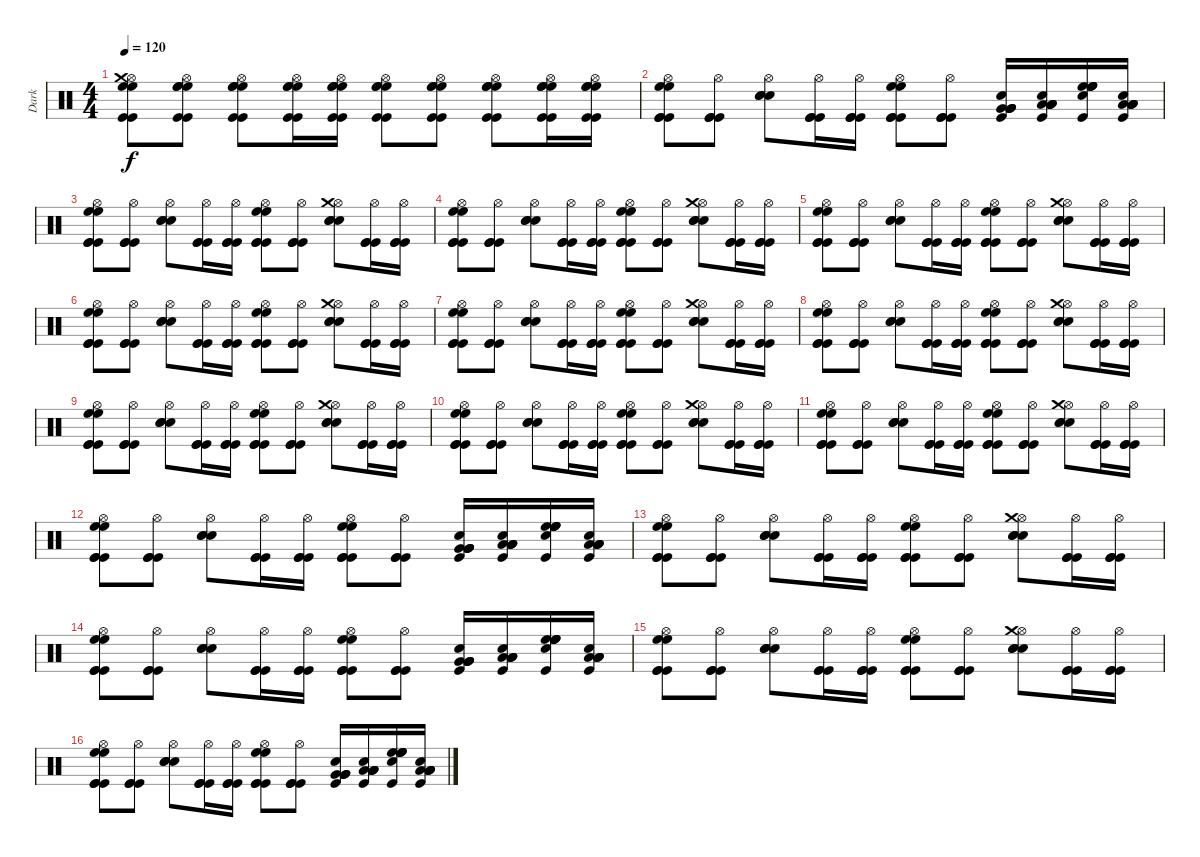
\track ("Dark" "Dark") {instrument percussion}
\staff {score}
\articulation defaults
\ts (4 4)
\tempo 120
\clef neutral
\ks c
("Hi-Hat (open)" "High Floor Tom (hit)" "High Floor Tom (hit)" "Crash medium (hit)" "Kick (hit)" "Kick (hit)").8{dy f} ("Hi-Hat (open)" "High Floor Tom (hit)" "High Floor Tom (hit)" "High Floor Tom (hit)" "Kick (hit)" "Kick (hit)").8 ("Hi-Hat (open)" "High Floor Tom (hit)" "High Floor Tom (hit)" "High Floor Tom (hit)" "Kick (hit)" "Kick (hit)").8 ("Hi-Hat (open)" "High Floor Tom (hit)" "High Floor Tom (hit)" "High Floor Tom (hit)" "Kick (hit)" "Kick (hit)").16 ("Hi-Hat (open)" "High Floor Tom (hit)" "High Floor Tom (hit)" "High Floor Tom (hit)" "Kick (hit)" "Kick (hit)").16 ("Hi-Hat (open)" "High Floor Tom (hit)" "High Floor Tom (hit)" "High Floor Tom (hit)" "Kick (hit)" "Kick (hit)").8 ("Hi-Hat (open)" "High Floor Tom (hit)" "High Floor Tom (hit)" "High Floor Tom (hit)" "Kick (hit)" "Kick (hit)").8 ("Hi-Hat (open)" "High Floor Tom (hit)" "High Floor Tom (hit)" "High Floor Tom (hit)" "Kick (hit)" "Kick (hit)").8 ("Hi-Hat (open)" "High Floor Tom (hit)" "High Floor Tom (hit)" "High Floor Tom (hit)" "Kick (hit)" "Kick (hit)").16 ("Hi-Hat (open)" "High Floor Tom (hit)" "High Floor Tom (hit)" "High Floor Tom (hit)" "Kick (hit)" "Kick (hit)").16 |
("Hi-Hat (open)" "High Floor Tom (hit)" "High Floor Tom (hit)" "Kick (hit)" "Kick (hit)" "Kick (hit)").8 ("Hi-Hat (open)" "Kick (hit)" "Kick (hit)" "Kick (hit)").8 ("Hi-Hat (open)" "Snare (hit) 2" "Snare (hit) 2" "Snare (hit) 2").8 ("Hi-Hat (open)" "Kick (hit)" "Kick (hit)" "Kick (hit)").16 ("Hi-Hat (open)" "Kick (hit)" "Kick (hit)" "Kick (hit)").16 ("Hi-Hat (open)" "High Floor Tom (hit)" "High Floor Tom (hit)" "Kick (hit)" "Kick (hit)" "Kick (hit)").8 ("Hi-Hat (open)" "Kick (hit)" "Kick (hit)" "Kick (hit)").8 ("Very Low Tom (hit)" "Very Low Tom (hit)" "Very Low Tom (hit)" "Very Low Tom (hit)" "Snare (hit) 2" "Kick (hit)").16 ("Low Tom (hit)" "Low Tom (hit)" "Low Tom (hit)" "Low Tom (hit)" "Snare (hit) 2" "Kick (hit)").16 ("High Floor Tom (hit)" "High Floor Tom (hit)" "High Floor Tom (hit)" "High Floor Tom (hit)" "Snare (hit) 2" "Kick (hit)").16 ("Low Tom (hit)" "Low Tom (hit)" "Low Tom (hit)" "Low Tom (hit)" "Snare (hit) 2" "Kick (hit)").16 |
("Hi-Hat (open)" "High Floor Tom (hit)" "High Floor Tom (hit)" "Kick (hit)" "Kick (hit)" "Kick (hit)").8 ("Hi-Hat (open)" "Kick (hit)" "Kick (hit)" "Kick (hit)").8 ("Hi-Hat (open)" "Snare (hit) 2" "Snare (hit) 2" "Snare (hit) 2").8 ("Hi-Hat (open)" "Kick (hit)" "Kick (hit)" "Kick (hit)").16 ("Hi-Hat (open)" "Kick (hit)" "Kick (hit)" "Kick (hit)").16 ("Hi-Hat (open)" "High Floor Tom (hit)" "High Floor Tom (hit)" "Kick (hit)" "Kick (hit)" "Kick (hit)").8 ("Hi-Hat (open)" "Kick (hit)" "Kick (hit)" "Kick (hit)").8 ("Hi-Hat (open)" "Crash medium (hit)" "Snare (hit) 2" "Snare (hit) 2" "Snare (hit) 2").8 ("Hi-Hat (open)" "Kick (hit)" "Kick (hit)" "Kick (hit)").16 ("Hi-Hat (open)" "Kick (hit)" "Kick (hit)" "Kick (hit)").16 |
("Hi-Hat (open)" "High Floor Tom (hit)" "High Floor Tom (hit)" "Kick (hit)" "Kick (hit)" "Kick (hit)").8 ("Hi-Hat (open)" "Kick (hit)" "Kick (hit)" "Kick (hit)").8 ("Hi-Hat (open)" "Snare (hit) 2" "Snare (hit) 2" "Snare (hit) 2").8 ("Hi-Hat (open)" "Kick (hit)" "Kick (hit)" "Kick (hit)").16 ("Hi-Hat (open)" "Kick (hit)" "Kick (hit)" "Kick (hit)").16 ("Hi-Hat (open)" "High Floor Tom (hit)" "High Floor Tom (hit)" "Kick (hit)" "Kick (hit)" "Kick (hit)").8 ("Hi-Hat (open)" "Kick (hit)" "Kick (hit)" "Kick (hit)").8 ("Hi-Hat (open)" "Crash medium (hit)" "Snare (hit) 2" "Snare (hit) 2" "Snare (hit) 2").8 ("Hi-Hat (open)" "Kick (hit)" "Kick (hit)" "Kick (hit)").16 ("Hi-Hat (open)" "Kick (hit)" "Kick (hit)" "Kick (hit)").16 |
("Hi-Hat (open)" "High Floor Tom (hit)" "High Floor Tom (hit)" "Kick (hit)" "Kick (hit)" "Kick (hit)").8 ("Hi-Hat (open)" "Kick (hit)" "Kick (hit)" "Kick (hit)").8 ("Hi-Hat (open)" "Snare (hit) 2" "Snare (hit) 2" "Snare (hit) 2").8 ("Hi-Hat (open)" "Kick (hit)" "Kick (hit)" "Kick (hit)").16 ("Hi-Hat (open)" "Kick (hit)" "Kick (hit)" "Kick (hit)").16 ("Hi-Hat (open)" "High Floor Tom (hit)" "High Floor Tom (hit)" "Kick (hit)" "Kick (hit)" "Kick (hit)").8 ("Hi-Hat (open)" "Kick (hit)" "Kick (hit)" "Kick (hit)").8 ("Hi-Hat (open)" "Crash medium (hit)" "Snare (hit) 2" "Snare (hit) 2" "Snare (hit) 2").8 ("Hi-Hat (open)" "Kick (hit)" "Kick (hit)" "Kick (hit)").16 ("Hi-Hat (open)" "Kick (hit)" "Kick (hit)" "Kick (hit)").16 |
("Hi-Hat (open)" "High Floor Tom (hit)" "High Floor Tom (hit)" "Kick (hit)" "Kick (hit)" "Kick (hit)").8 ("Hi-Hat (open)" "Kick (hit)" "Kick (hit)" "Kick (hit)").8 ("Hi-Hat (open)" "Snare (hit) 2" "Snare (hit) 2" "Snare (hit) 2").8 ("Hi-Hat (open)" "Kick (hit)" "Kick (hit)" "Kick (hit)").16 ("Hi-Hat (open)" "Kick (hit)" "Kick (hit)" "Kick (hit)").16 ("Hi-Hat (open)" "High Floor Tom (hit)" "High Floor Tom (hit)" "Kick (hit)" "Kick (hit)" "Kick (hit)").8 ("Hi-Hat (open)" "Kick (hit)" "Kick (hit)" "Kick (hit)").8 ("Hi-Hat (open)" "Crash medium (hit)" "Snare (hit) 2" "Snare (hit) 2" "Snare (hit) 2").8 ("Hi-Hat (open)" "Kick (hit)" "Kick (hit)" "Kick (hit)").16 ("Hi-Hat (open)" "Kick (hit)" "Kick (hit)" "Kick (hit)").16 |
("Hi-Hat (open)" "High Floor Tom (hit)" "High Floor Tom (hit)" "Kick (hit)" "Kick (hit)" "Kick (hit)").8 ("Hi-Hat (open)" "Kick (hit)" "Kick (hit)" "Kick (hit)").8 ("Hi-Hat (open)" "Snare (hit) 2" "Snare (hit) 2" "Snare (hit) 2").8 ("Hi-Hat (open)" "Kick (hit)" "Kick (hit)" "Kick (hit)").16 ("Hi-Hat (open)" "Kick (hit)" "Kick (hit)" "Kick (hit)").16 ("Hi-Hat (open)" "High Floor Tom (hit)" "High Floor Tom (hit)" "Kick (hit)" "Kick (hit)" "Kick (hit)").8 ("Hi-Hat (open)" "Kick (hit)" "Kick (hit)" "Kick (hit)").8 ("Hi-Hat (open)" "Crash medium (hit)" "Snare (hit) 2" "Snare (hit) 2" "Snare (hit) 2").8 ("Hi-Hat (open)" "Kick (hit)" "Kick (hit)" "Kick (hit)").16 ("Hi-Hat (open)" "Kick (hit)" "Kick (hit)" "Kick (hit)").16 |
("Hi-Hat (open)" "High Floor Tom (hit)" "High Floor Tom (hit)" "Kick (hit)" "Kick (hit)" "Kick (hit)").8 ("Hi-Hat (open)" "Kick (hit)" "Kick (hit)" "Kick (hit)").8 ("Hi-Hat (open)" "Snare (hit) 2" "Snare (hit) 2" "Snare (hit) 2").8 ("Hi-Hat (open)" "Kick (hit)" "Kick (hit)" "Kick (hit)").16 ("Hi-Hat (open)" "Kick (hit)" "Kick (hit)" "Kick (hit)").16 ("Hi-Hat (open)" "High Floor Tom (hit)" "High Floor Tom (hit)" "Kick (hit)" "Kick (hit)" "Kick (hit)").8 ("Hi-Hat (open)" "Kick (hit)" "Kick (hit)" "Kick (hit)").8 ("Hi-Hat (open)" "Crash medium (hit)" "Snare (hit) 2" "Snare (hit) 2" "Snare (hit) 2").8 ("Hi-Hat (open)" "Kick (hit)" "Kick (hit)" "Kick (hit)").16 ("Hi-Hat (open)" "Kick (hit)" "Kick (hit)" "Kick (hit)").16 |
("Hi-Hat (open)" "High Floor Tom (hit)" "High Floor Tom (hit)" "Kick (hit)" "Kick (hit)" "Kick (hit)").8 ("Hi-Hat (open)" "Kick (hit)" "Kick (hit)" "Kick (hit)").8 ("Hi-Hat (open)" "Snare (hit) 2" "Snare (hit) 2" "Snare (hit) 2").8 ("Hi-Hat (open)" "Kick (hit)" "Kick (hit)" "Kick (hit)").16 ("Hi-Hat (open)" "Kick (hit)" "Kick (hit)" "Kick (hit)").16 ("Hi-Hat (open)" "High Floor Tom (hit)" "High Floor Tom (hit)" "Kick (hit)" "Kick (hit)" "Kick (hit)").8 ("Hi-Hat (open)" "Kick (hit)" "Kick (hit)" "Kick (hit)").8 ("Hi-Hat (open)" "Crash medium (hit)" "Snare (hit) 2" "Snare (hit) 2" "Snare (hit) 2").8 ("Hi-Hat (open)" "Kick (hit)" "Kick (hit)" "Kick (hit)").16 ("Hi-Hat (open)" "Kick (hit)" "Kick (hit)" "Kick (hit)").16 |
("Hi-Hat (open)" "High Floor Tom (hit)" "High Floor Tom (hit)" "Kick (hit)" "Kick (hit)" "Kick (hit)").8 ("Hi-Hat (open)" "Kick (hit)" "Kick (hit)" "Kick (hit)").8 ("Hi-Hat (open)" "Snare (hit) 2" "Snare (hit) 2" "Snare (hit) 2").8 ("Hi-Hat (open)" "Kick (hit)" "Kick (hit)" "Kick (hit)").16 ("Hi-Hat (open)" "Kick (hit)" "Kick (hit)" "Kick (hit)").16 ("Hi-Hat (open)" "High Floor Tom (hit)" "High Floor Tom (hit)" "Kick (hit)" "Kick (hit)" "Kick (hit)").8 ("Hi-Hat (open)" "Kick (hit)" "Kick (hit)" "Kick (hit)").8 ("Hi-Hat (open)" "Crash medium (hit)" "Snare (hit) 2" "Snare (hit) 2" "Snare (hit) 2").8 ("Hi-Hat (open)" "Kick (hit)" "Kick (hit)" "Kick (hit)").16 ("Hi-Hat (open)" "Kick (hit)" "Kick (hit)" "Kick (hit)").16 |
("Hi-Hat (open)" "High Floor Tom (hit)" "High Floor Tom (hit)" "Kick (hit)" "Kick (hit)" "Kick (hit)").8 ("Hi-Hat (open)" "Kick (hit)" "Kick (hit)" "Kick (hit)").8 ("Hi-Hat (open)" "Snare (hit) 2" "Snare (hit) 2" "Snare (hit) 2").8 ("Hi-Hat (open)" "Kick (hit)" "Kick (hit)" "Kick (hit)").16 ("Hi-Hat (open)" "Kick (hit)" "Kick (hit)" "Kick (hit)").16 ("Hi-Hat (open)" "High Floor Tom (hit)" "High Floor Tom (hit)" "Kick (hit)" "Kick (hit)" "Kick (hit)").8 ("Hi-Hat (open)" "Kick (hit)" "Kick (hit)" "Kick (hit)").8 ("Hi-Hat (open)" "Crash medium (hit)" "Snare (hit) 2" "Snare (hit) 2" "Snare (hit) 2").8 ("Hi-Hat (open)" "Kick (hit)" "Kick (hit)" "Kick (hit)").16 ("Hi-Hat (open)" "Kick (hit)" "Kick (hit)" "Kick (hit)").16 |
("Hi-Hat (open)" "High Floor Tom (hit)" "High Floor Tom (hit)" "Kick (hit)" "Kick (hit)" "Kick (hit)").8 ("Hi-Hat (open)" "Kick (hit)" "Kick (hit)" "Kick (hit)").8 ("Hi-Hat (open)" "Snare (hit) 2" "Snare (hit) 2" "Snare (hit) 2").8 ("Hi-Hat (open)" "Kick (hit)" "Kick (hit)" "Kick (hit)").16 ("Hi-Hat (open)" "Kick (hit)" "Kick (hit)" "Kick (hit)").16 ("Hi-Hat (open)" "High Floor Tom (hit)" "High Floor Tom (hit)" "Kick (hit)" "Kick (hit)" "Kick (hit)").8 ("Hi-Hat (open)" "Kick (hit)" "Kick (hit)" "Kick (hit)").8 ("Very Low Tom (hit)" "Very Low Tom (hit)" "Very Low Tom (hit)" "Very Low Tom (hit)" "Snare (hit) 2" "Kick (hit)").16 ("Low Tom (hit)" "Low Tom (hit)" "Low Tom (hit)" "Low Tom (hit)" "Snare (hit) 2" "Kick (hit)").16 ("High Floor Tom (hit)" "High Floor Tom (hit)" "High Floor Tom (hit)" "High Floor Tom (hit)" "Snare (hit) 2" "Kick (hit)").16 ("Low Tom (hit)" "Low Tom (hit)" "Low Tom (hit)" "Low Tom (hit)" "Snare (hit) 2" "Kick (hit)").16 |
("Hi-Hat (open)" "High Floor Tom (hit)" "High Floor Tom (hit)" "Kick (hit)" "Kick (hit)" "Kick (hit)").8 ("Hi-Hat (open)" "Kick (hit)" "Kick (hit)" "Kick (hit)").8 ("Hi-Hat (open)" "Snare (hit) 2" "Snare (hit) 2" "Snare (hit) 2").8 ("Hi-Hat (open)" "Kick (hit)" "Kick (hit)" "Kick (hit)").16 ("Hi-Hat (open)" "Kick (hit)" "Kick (hit)" "Kick (hit)").16 ("Hi-Hat (open)" "High Floor Tom (hit)" "High Floor Tom (hit)" "Kick (hit)" "Kick (hit)" "Kick (hit)").8 ("Hi-Hat (open)" "Kick (hit)" "Kick (hit)" "Kick (hit)").8 ("Hi-Hat (open)" "Crash medium (hit)" "Snare (hit) 2" "Snare (hit) 2" "Snare (hit) 2").8 ("Hi-Hat (open)" "Kick (hit)" "Kick (hit)" "Kick (hit)").16 ("Hi-Hat (open)" "Kick (hit)" "Kick (hit)" "Kick (hit)").16 |
("Hi-Hat (open)" "High Floor Tom (hit)" "High Floor Tom (hit)" "Kick (hit)" "Kick (hit)" "Kick (hit)").8 ("Hi-Hat (open)" "Kick (hit)" "Kick (hit)" "Kick (hit)").8 ("Hi-Hat (open)" "Snare (hit) 2" "Snare (hit) 2" "Snare (hit) 2").8 ("Hi-Hat (open)" "Kick (hit)" "Kick (hit)" "Kick (hit)").16 ("Hi-Hat (open)" "Kick (hit)" "Kick (hit)" "Kick (hit)").16 ("Hi-Hat (open)" "High Floor Tom (hit)" "High Floor Tom (hit)" "Kick (hit)" "Kick (hit)" "Kick (hit)").8 ("Hi-Hat (open)" "Kick (hit)" "Kick (hit)" "Kick (hit)").8 ("Very Low Tom (hit)" "Very Low Tom (hit)" "Very Low Tom (hit)" "Very Low Tom (hit)" "Snare (hit) 2" "Kick (hit)").16 ("Low Tom (hit)" "Low Tom (hit)" "Low Tom (hit)" "Low Tom (hit)" "Snare (hit) 2" "Kick (hit)").16 ("High Floor Tom (hit)" "High Floor Tom (hit)" "High Floor Tom (hit)" "High Floor Tom (hit)" "Snare (hit) 2" "Kick (hit)").16 ("Low Tom (hit)" "Low Tom (hit)" "Low Tom (hit)" "Low Tom (hit)" "Snare (hit) 2" "Kick (hit)").16 |
("Hi-Hat (open)" "High Floor Tom (hit)" "High Floor Tom (hit)" "Kick (hit)" "Kick (hit)" "Kick (hit)").8 ("Hi-Hat (open)" "Kick (hit)" "Kick (hit)" "Kick (hit)").8 ("Hi-Hat (open)" "Snare (hit) 2" "Snare (hit) 2" "Snare (hit) 2").8 ("Hi-Hat (open)" "Kick (hit)" "Kick (hit)" "Kick (hit)").16 ("Hi-Hat (open)" "Kick (hit)" "Kick (hit)" "Kick (hit)").16 ("Hi-Hat (open)" "High Floor Tom (hit)" "High Floor Tom (hit)" "Kick (hit)" "Kick (hit)" "Kick (hit)").8 ("Hi-Hat (open)" "Kick (hit)" "Kick (hit)" "Kick (hit)").8 ("Hi-Hat (open)" "Crash medium (hit)" "Snare (hit) 2" "Snare (hit) 2" "Snare (hit) 2").8 ("Hi-Hat (open)" "Kick (hit)" "Kick (hit)" "Kick (hit)").16 ("Hi-Hat (open)" "Kick (hit)" "Kick (hit)" "Kick (hit)").16 |
("Hi-Hat (open)" "High Floor Tom (hit)" "High Floor Tom (hit)" "Kick (hit)" "Kick (hit)" "Kick (hit)").8 ("Hi-Hat (open)" "Kick (hit)" "Kick (hit)" "Kick (hit)").8 ("Hi-Hat (open)" "Snare (hit) 2" "Snare (hit) 2" "Snare (hit) 2").8 ("Hi-Hat (open)" "Kick (hit)" "Kick (hit)" "Kick (hit)").16 ("Hi-Hat (open)" "Kick (hit)" "Kick (hit)" "Kick (hit)").16 ("Hi-Hat (open)" "High Floor Tom (hit)" "High Floor Tom (hit)" "Kick (hit)" "Kick (hit)" "Kick (hit)").8 ("Hi-Hat (open)" "Kick (hit)" "Kick (hit)" "Kick (hit)").8 ("Very Low Tom (hit)" "Very Low Tom (hit)" "Very Low Tom (hit)" "Very Low Tom (hit)" "Snare (hit) 2" "Kick (hit)").16 ("Low Tom (hit)" "Low Tom (hit)" "Low Tom (hit)" "Low Tom (hit)" "Snare (hit) 2" "Kick (hit)").16 ("High Floor Tom (hit)" "High Floor Tom (hit)" "High Floor Tom (hit)" "High Floor Tom (hit)" "Snare (hit) 2" "Kick (hit)").16 ("Low Tom (hit)" "Low Tom (hit)" "Low Tom (hit)" "Low Tom (hit)" "Snare (hit) 2" "Kick (hit)").16
